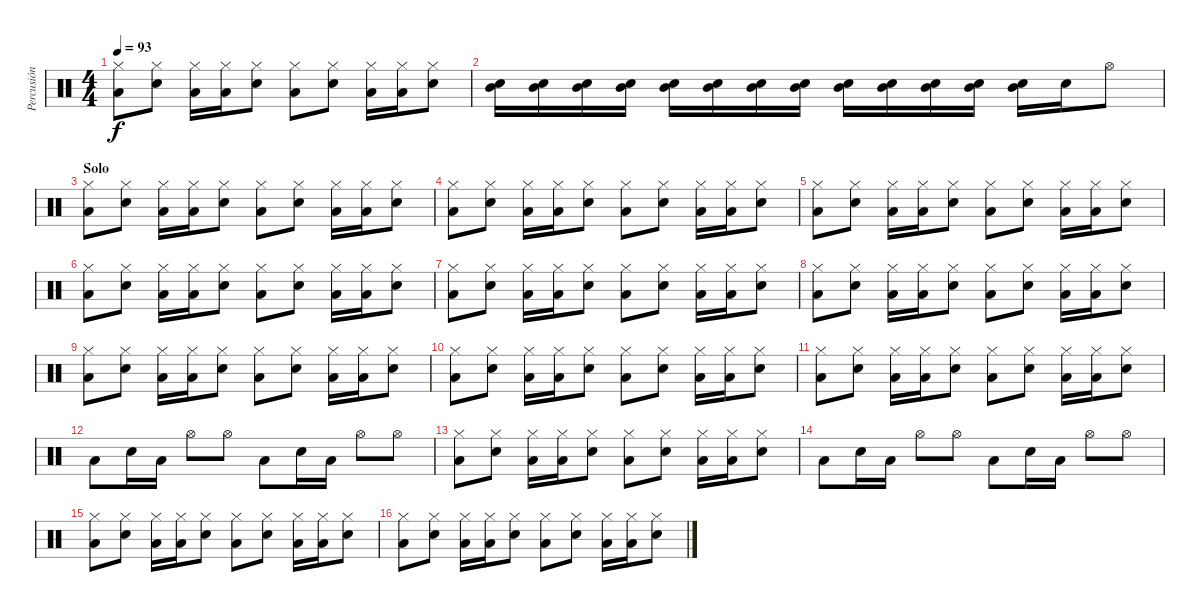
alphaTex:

\track ("Percusión (Miguel Tapia)" "Percusión ") {instrument percussion}
\staff {score}
\articulation defaults
\ts (4 4)
\tempo 93
\clef neutral
\ks c
("Hi-Hat (closed)" "Low Tom (hit)").8{dy f} ("Hi-Hat (closed)" "Electric Snare (hit)").8 ("Hi-Hat (closed)" "Low Tom (hit)").16 ("Hi-Hat (closed)" "Low Tom (hit)").16 ("Hi-Hat (closed)" "Electric Snare (hit)").8 ("Hi-Hat (closed)" "Low Tom (hit)").8 ("Hi-Hat (closed)" "Electric Snare (hit)").8 ("Hi-Hat (closed)" "Low Tom (hit)").16 ("Hi-Hat (closed)" "Low Tom (hit)").16 ("Hi-Hat (closed)" "Electric Snare (hit)").8 |
("Mid Tom (hit)" "Electric Snare (hit)").16 ("Mid Tom (hit)" "Electric Snare (hit)").16 ("Mid Tom (hit)" "Electric Snare (hit)").16 ("Mid Tom (hit)" "Electric Snare (hit)").16 ("Mid Tom (hit)" "Electric Snare (hit)").16 ("Mid Tom (hit)" "Electric Snare (hit)").16 ("Mid Tom (hit)" "Electric Snare (hit)").16 ("Mid Tom (hit)" "Electric Snare (hit)").16 ("Mid Tom (hit)" "Electric Snare (hit)").16 ("Mid Tom (hit)" "Electric Snare (hit)").16 ("Mid Tom (hit)" "Electric Snare (hit)").16 ("Mid Tom (hit)" "Electric Snare (hit)").16 ("Mid Tom (hit)" "Electric Snare (hit)").16 "Snare (hit)".16 "Hi-Hat (open)".8 |
\section ("" "Solo")
("Hi-Hat (closed)" "Low Tom (hit)").8 ("Hi-Hat (closed)" "Electric Snare (hit)").8 ("Hi-Hat (closed)" "Low Tom (hit)").16 ("Hi-Hat (closed)" "Low Tom (hit)").16 ("Hi-Hat (closed)" "Electric Snare (hit)").8 ("Hi-Hat (closed)" "Low Tom (hit)").8 ("Hi-Hat (closed)" "Electric Snare (hit)").8 ("Hi-Hat (closed)" "Low Tom (hit)").16 ("Hi-Hat (closed)" "Low Tom (hit)").16 ("Hi-Hat (closed)" "Electric Snare (hit)").8 |
("Hi-Hat (closed)" "Low Tom (hit)").8 ("Hi-Hat (closed)" "Electric Snare (hit)").8 ("Hi-Hat (closed)" "Low Tom (hit)").16 ("Hi-Hat (closed)" "Low Tom (hit)").16 ("Hi-Hat (closed)" "Electric Snare (hit)").8 ("Hi-Hat (closed)" "Low Tom (hit)").8 ("Hi-Hat (closed)" "Electric Snare (hit)").8 ("Hi-Hat (closed)" "Low Tom (hit)").16 ("Hi-Hat (closed)" "Low Tom (hit)").16 ("Hi-Hat (closed)" "Electric Snare (hit)").8 |
("Hi-Hat (closed)" "Low Tom (hit)").8 ("Hi-Hat (closed)" "Electric Snare (hit)").8 ("Hi-Hat (closed)" "Low Tom (hit)").16 ("Hi-Hat (closed)" "Low Tom (hit)").16 ("Hi-Hat (closed)" "Electric Snare (hit)").8 ("Hi-Hat (closed)" "Low Tom (hit)").8 ("Hi-Hat (closed)" "Electric Snare (hit)").8 ("Hi-Hat (closed)" "Low Tom (hit)").16 ("Hi-Hat (closed)" "Low Tom (hit)").16 ("Hi-Hat (closed)" "Electric Snare (hit)").8 |
("Hi-Hat (closed)" "Low Tom (hit)").8 ("Hi-Hat (closed)" "Electric Snare (hit)").8 ("Hi-Hat (closed)" "Low Tom (hit)").16 ("Hi-Hat (closed)" "Low Tom (hit)").16 ("Hi-Hat (closed)" "Electric Snare (hit)").8 ("Hi-Hat (closed)" "Low Tom (hit)").8 ("Hi-Hat (closed)" "Electric Snare (hit)").8 ("Hi-Hat (closed)" "Low Tom (hit)").16 ("Hi-Hat (closed)" "Low Tom (hit)").16 ("Hi-Hat (closed)" "Electric Snare (hit)").8 |
("Hi-Hat (closed)" "Low Tom (hit)").8 ("Hi-Hat (closed)" "Electric Snare (hit)").8 ("Hi-Hat (closed)" "Low Tom (hit)").16 ("Hi-Hat (closed)" "Low Tom (hit)").16 ("Hi-Hat (closed)" "Electric Snare (hit)").8 ("Hi-Hat (closed)" "Low Tom (hit)").8 ("Hi-Hat (closed)" "Electric Snare (hit)").8 ("Hi-Hat (closed)" "Low Tom (hit)").16 ("Hi-Hat (closed)" "Low Tom (hit)").16 ("Hi-Hat (closed)" "Electric Snare (hit)").8 |
("Hi-Hat (closed)" "Low Tom (hit)").8 ("Hi-Hat (closed)" "Electric Snare (hit)").8 ("Hi-Hat (closed)" "Low Tom (hit)").16 ("Hi-Hat (closed)" "Low Tom (hit)").16 ("Hi-Hat (closed)" "Electric Snare (hit)").8 ("Hi-Hat (closed)" "Low Tom (hit)").8 ("Hi-Hat (closed)" "Electric Snare (hit)").8 ("Hi-Hat (closed)" "Low Tom (hit)").16 ("Hi-Hat (closed)" "Low Tom (hit)").16 ("Hi-Hat (closed)" "Electric Snare (hit)").8 |
("Hi-Hat (closed)" "Low Tom (hit)").8 ("Hi-Hat (closed)" "Electric Snare (hit)").8 ("Hi-Hat (closed)" "Low Tom (hit)").16 ("Hi-Hat (closed)" "Low Tom (hit)").16 ("Hi-Hat (closed)" "Electric Snare (hit)").8 ("Hi-Hat (closed)" "Low Tom (hit)").8 ("Hi-Hat (closed)" "Electric Snare (hit)").8 ("Hi-Hat (closed)" "Low Tom (hit)").16 ("Hi-Hat (closed)" "Low Tom (hit)").16 ("Hi-Hat (closed)" "Electric Snare (hit)").8 |
("Hi-Hat (closed)" "Low Tom (hit)").8 ("Hi-Hat (closed)" "Electric Snare (hit)").8 ("Hi-Hat (closed)" "Low Tom (hit)").16 ("Hi-Hat (closed)" "Low Tom (hit)").16 ("Hi-Hat (closed)" "Electric Snare (hit)").8 ("Hi-Hat (closed)" "Low Tom (hit)").8 ("Hi-Hat (closed)" "Electric Snare (hit)").8 ("Hi-Hat (closed)" "Low Tom (hit)").16 ("Hi-Hat (closed)" "Low Tom (hit)").16 ("Hi-Hat (closed)" "Electric Snare (hit)").8 |
("Hi-Hat (closed)" "Low Tom (hit)").8 ("Hi-Hat (closed)" "Electric Snare (hit)").8 ("Hi-Hat (closed)" "Low Tom (hit)").16 ("Hi-Hat (closed)" "Low Tom (hit)").16 ("Hi-Hat (closed)" "Electric Snare (hit)").8 ("Hi-Hat (closed)" "Low Tom (hit)").8 ("Hi-Hat (closed)" "Electric Snare (hit)").8 ("Hi-Hat (closed)" "Low Tom (hit)").16 ("Hi-Hat (closed)" "Low Tom (hit)").16 ("Hi-Hat (closed)" "Electric Snare (hit)").8 |
"Low Tom (hit)".8 "Electric Snare (hit)".16 "Low Tom (hit)".16 "Hi-Hat (open)".8 "Hi-Hat (open)".8 "Low Tom (hit)".8 "Electric Snare (hit)".16 "Low Tom (hit)".16 "Hi-Hat (open)".8 "Hi-Hat (open)".8 |
("Hi-Hat (closed)" "Low Tom (hit)").8 ("Hi-Hat (closed)" "Electric Snare (hit)").8 ("Hi-Hat (closed)" "Low Tom (hit)").16 ("Hi-Hat (closed)" "Low Tom (hit)").16 ("Hi-Hat (closed)" "Electric Snare (hit)").8 ("Hi-Hat (closed)" "Low Tom (hit)").8 ("Hi-Hat (closed)" "Electric Snare (hit)").8 ("Hi-Hat (closed)" "Low Tom (hit)").16 ("Hi-Hat (closed)" "Low Tom (hit)").16 ("Hi-Hat (closed)" "Electric Snare (hit)").8 |
"Low Tom (hit)".8 "Electric Snare (hit)".16 "Low Tom (hit)".16 "Hi-Hat (open)".8 "Hi-Hat (open)".8 "Low Tom (hit)".8 "Electric Snare (hit)".16 "Low Tom (hit)".16 "Hi-Hat (open)".8 "Hi-Hat (open)".8 |
("Hi-Hat (closed)" "Low Tom (hit)").8 ("Hi-Hat (closed)" "Electric Snare (hit)").8 ("Hi-Hat (closed)" "Low Tom (hit)").16 ("Hi-Hat (closed)" "Low Tom (hit)").16 ("Hi-Hat (closed)" "Electric Snare (hit)").8 ("Hi-Hat (closed)" "Low Tom (hit)").8 ("Hi-Hat (closed)" "Electric Snare (hit)").8 ("Hi-Hat (closed)" "Low Tom (hit)").16 ("Hi-Hat (closed)" "Low Tom (hit)").16 ("Hi-Hat (closed)" "Electric Snare (hit)").8 |
("Hi-Hat (closed)" "Low Tom (hit)").8 ("Hi-Hat (closed)" "Electric Snare (hit)").8 ("Hi-Hat (closed)" "Low Tom (hit)").16 ("Hi-Hat (closed)" "Low Tom (hit)").16 ("Hi-Hat (closed)" "Electric Snare (hit)").8 ("Hi-Hat (closed)" "Low Tom (hit)").8 ("Hi-Hat (closed)" "Electric Snare (hit)").8 ("Hi-Hat (closed)" "Low Tom (hit)").16 ("Hi-Hat (closed)" "Low Tom (hit)").16 ("Hi-Hat (closed)" "Electric Snare (hit)").8
